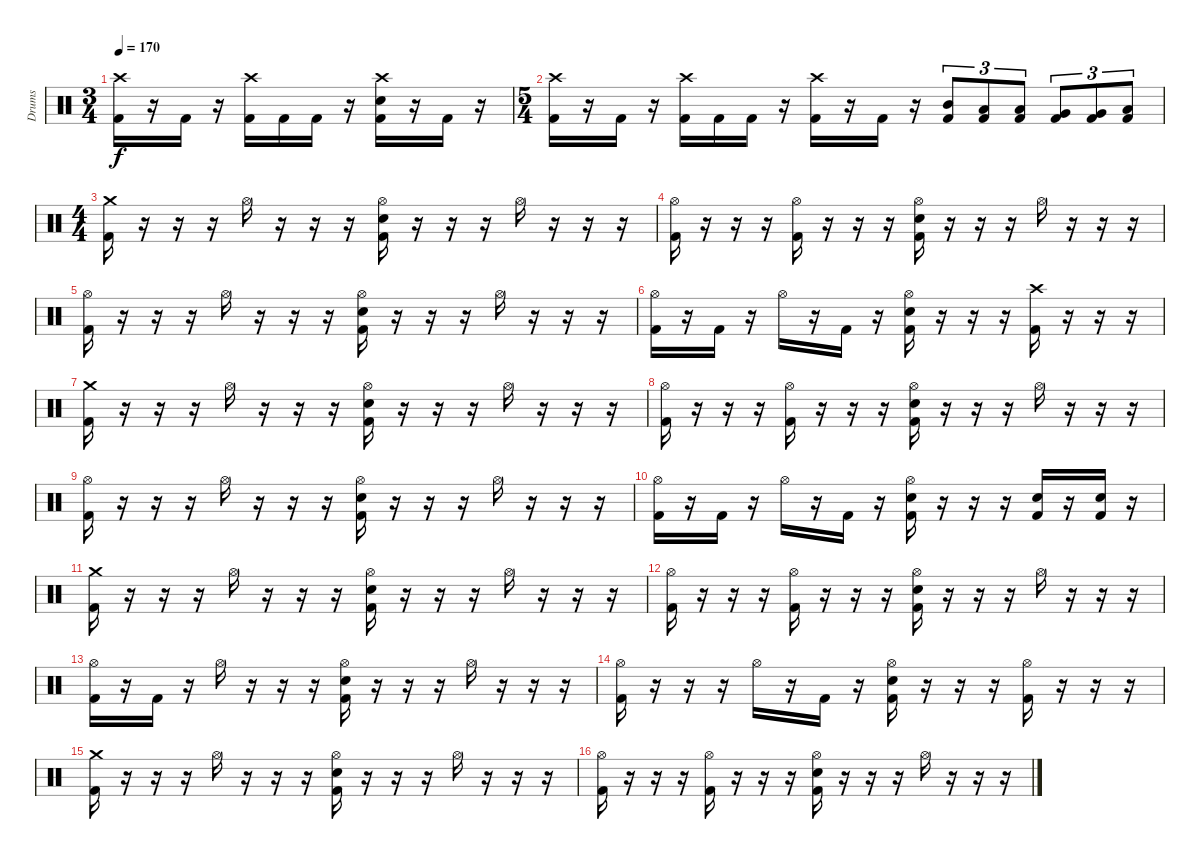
\track ("Drums" "Drums") {instrument percussion}
\staff {score}
\articulation defaults
\ts (3 4)
\tempo 170
\clef neutral
\ks c
("Crash high (hit)" "Kick (hit) 2").16{dy f} r.16 "Kick (hit) 2".16 r.16 ("Crash high (hit)" "Kick (hit) 2").16 "Kick (hit) 2".16 "Kick (hit) 2".16 r.16 ("Crash high (hit)" "Electric Snare (hit)" "Kick (hit) 2").16 r.16 "Kick (hit) 2".16 r.16 |
\ts (5 4)
("Crash high (hit)" "Kick (hit) 2").16 r.16 "Kick (hit) 2".16 r.16 ("Crash high (hit)" "Kick (hit) 2").16 "Kick (hit) 2".16 "Kick (hit) 2".16 r.16 ("Crash high (hit)" "Kick (hit) 2").16 r.16 "Kick (hit) 2".16 r.16 ("Mid Tom (hit)" "Kick (hit) 2").8{tu (3 2)} ("Low Tom (hit)" "Kick (hit) 2").8{tu (3 2)} ("Low Tom (hit)" "Kick (hit) 2").8{tu (3 2)} ("Very Low Tom (hit)" "Kick (hit) 2").8{tu (3 2)} ("Very Low Tom (hit)" "Kick (hit) 2").8{tu (3 2)} ("Low Floor Tom (hit)" "Kick (hit) 2").8{tu (3 2)} |
\ts (4 4)
\section ("" "")
("Crash medium (hit)" "Kick (hit) 2").16 r.16 r.16 r.16 "Hi-Hat (open)".16 r.16 r.16 r.16 ("Hi-Hat (open)" "Electric Snare (hit)" "Kick (hit) 2").16 r.16 r.16 r.16 "Hi-Hat (open)".16 r.16 r.16 r.16 |
("Hi-Hat (open)" "Kick (hit) 2").16 r.16 r.16 r.16 ("Hi-Hat (open)" "Kick (hit) 2").16 r.16 r.16 r.16 ("Hi-Hat (open)" "Electric Snare (hit)" "Kick (hit) 2").16 r.16 r.16 r.16 "Hi-Hat (open)".16 r.16 r.16 r.16 |
("Hi-Hat (open)" "Kick (hit) 2").16 r.16 r.16 r.16 "Hi-Hat (open)".16 r.16 r.16 r.16 ("Hi-Hat (open)" "Electric Snare (hit)" "Kick (hit) 2").16 r.16 r.16 r.16 "Hi-Hat (open)".16 r.16 r.16 r.16 |
("Hi-Hat (open)" "Kick (hit) 2").16 r.16 "Kick (hit) 2".16 r.16 "Hi-Hat (open)".16 r.16 "Kick (hit) 2".16 r.16 ("Hi-Hat (open)" "Electric Snare (hit)" "Kick (hit) 2").16 r.16 r.16 r.16 ("Crash high (hit)" "Kick (hit) 2").16 r.16 r.16 r.16 |
("Crash medium (hit)" "Kick (hit) 2").16 r.16 r.16 r.16 "Hi-Hat (open)".16 r.16 r.16 r.16 ("Hi-Hat (open)" "Electric Snare (hit)" "Kick (hit) 2").16 r.16 r.16 r.16 "Hi-Hat (open)".16 r.16 r.16 r.16 |
("Hi-Hat (open)" "Kick (hit) 2").16 r.16 r.16 r.16 ("Hi-Hat (open)" "Kick (hit) 2").16 r.16 r.16 r.16 ("Hi-Hat (open)" "Electric Snare (hit)" "Kick (hit) 2").16 r.16 r.16 r.16 "Hi-Hat (open)".16 r.16 r.16 r.16 |
("Hi-Hat (open)" "Kick (hit) 2").16 r.16 r.16 r.16 "Hi-Hat (open)".16 r.16 r.16 r.16 ("Hi-Hat (open)" "Electric Snare (hit)" "Kick (hit) 2").16 r.16 r.16 r.16 "Hi-Hat (open)".16 r.16 r.16 r.16 |
("Hi-Hat (open)" "Kick (hit) 2").16 r.16 "Kick (hit) 2".16 r.16 "Hi-Hat (open)".16 r.16 "Kick (hit) 2".16 r.16 ("Hi-Hat (open)" "Electric Snare (hit)" "Kick (hit) 2").16 r.16 r.16 r.16 ("Electric Snare (hit)" "Kick (hit) 2").16 r.16 ("Electric Snare (hit)" "Kick (hit) 2").16 r.16 |
("Crash medium (hit)" "Kick (hit) 2").16 r.16 r.16 r.16 "Hi-Hat (open)".16 r.16 r.16 r.16 ("Hi-Hat (open)" "Electric Snare (hit)" "Kick (hit) 2").16 r.16 r.16 r.16 "Hi-Hat (open)".16 r.16 r.16 r.16 |
("Hi-Hat (open)" "Kick (hit) 2").16 r.16 r.16 r.16 ("Hi-Hat (open)" "Kick (hit) 2").16 r.16 r.16 r.16 ("Hi-Hat (open)" "Electric Snare (hit)" "Kick (hit) 2").16 r.16 r.16 r.16 "Hi-Hat (open)".16 r.16 r.16 r.16 |
("Hi-Hat (open)" "Kick (hit) 2").16 r.16 "Kick (hit) 2".16 r.16 "Hi-Hat (open)".16 r.16 r.16 r.16 ("Hi-Hat (open)" "Electric Snare (hit)" "Kick (hit) 2").16 r.16 r.16 r.16 "Hi-Hat (open)".16 r.16 r.16 r.16 |
("Hi-Hat (open)" "Kick (hit) 2").16 r.16 r.16 r.16 "Hi-Hat (open)".16 r.16 "Kick (hit) 2".16 r.16 ("Hi-Hat (open)" "Electric Snare (hit)" "Kick (hit) 2").16 r.16 r.16 r.16 ("Hi-Hat (open)" "Kick (hit) 2").16 r.16 r.16 r.16 |
("Crash medium (hit)" "Kick (hit) 2").16 r.16 r.16 r.16 "Hi-Hat (open)".16 r.16 r.16 r.16 ("Hi-Hat (open)" "Electric Snare (hit)" "Kick (hit) 2").16 r.16 r.16 r.16 "Hi-Hat (open)".16 r.16 r.16 r.16 |
("Hi-Hat (open)" "Kick (hit) 2").16 r.16 r.16 r.16 ("Hi-Hat (open)" "Kick (hit) 2").16 r.16 r.16 r.16 ("Hi-Hat (open)" "Electric Snare (hit)" "Kick (hit) 2").16 r.16 r.16 r.16 "Hi-Hat (open)".16 r.16 r.16 r.16
